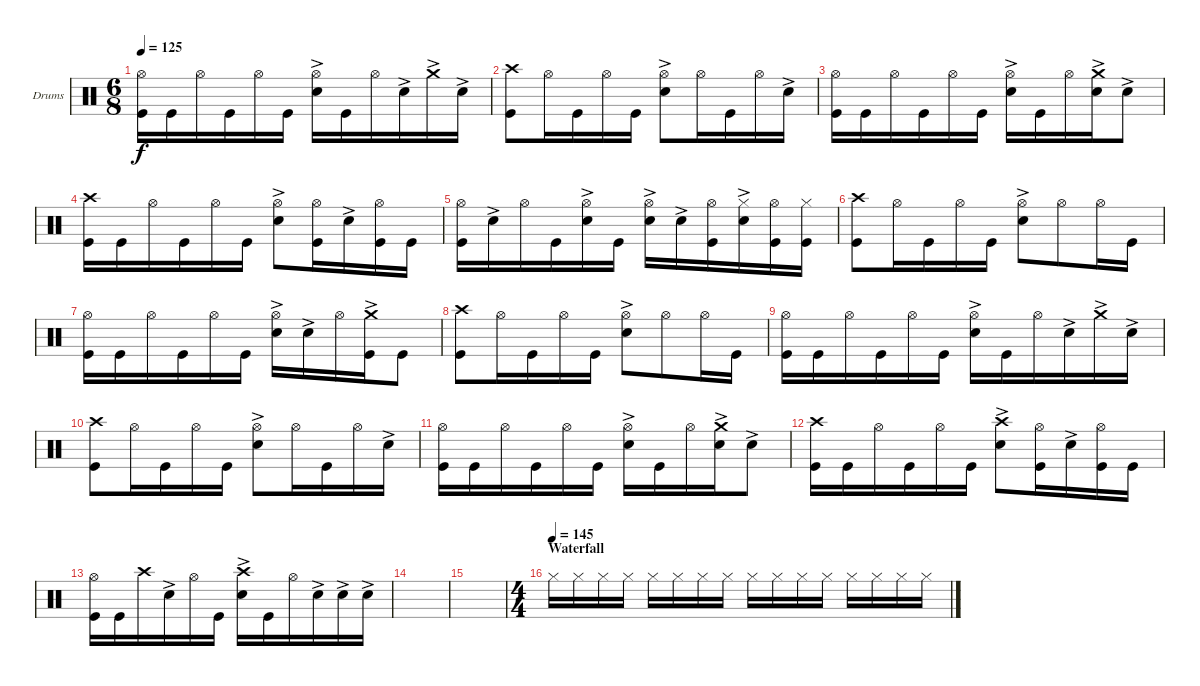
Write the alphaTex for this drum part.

\defaultSystemsLayout 4
\bracketExtendMode groupsimilarinstruments
\firstSystemTrackNameOrientation horizontal
\otherSystemsTrackNameOrientation horizontal
\track ("Drumkit" "Drums") {instrument percussion}
\staff {score}
\articulation defaults
\ts (6 8)
\tempo 125
\clef neutral
\ks c
("Kick (hit)" "Hi-Hat (open)").16{dy f} "Kick (hit)".16 "Hi-Hat (open)".16 "Kick (hit)".16 "Hi-Hat (open)".16 "Kick (hit)".16 ("Hi-Hat (open)" "Snare (hit) 2"{ac}).16 "Kick (hit)".16 "Hi-Hat (open)".16 "Snare (hit) 2"{ac}.16 "Crash medium (hit)"{ac}.16 "Snare (hit) 2"{ac}.16 |
("Crash high (hit)" "Kick (hit)").8 "Hi-Hat (open)".16 "Kick (hit)".16 "Hi-Hat (open)".16 "Kick (hit)".16 ("Hi-Hat (open)" "Snare (hit) 2"{ac}).8 "Hi-Hat (open)".16 "Kick (hit)".16 "Hi-Hat (open)".16 "Snare (hit) 2"{ac}.16 |
("Kick (hit)" "Hi-Hat (open)").16 "Kick (hit)".16 "Hi-Hat (open)".16 "Kick (hit)".16 "Hi-Hat (open)".16 "Kick (hit)".16 ("Hi-Hat (open)" "Snare (hit) 2"{ac}).16 "Kick (hit)".16 "Hi-Hat (open)".16 ("Snare (hit) 2" "Crash medium (hit)"{ac}).16 "Snare (hit) 2"{ac}.8 |
("Crash high (hit)" "Kick (hit)").16 "Kick (hit)".16 "Hi-Hat (open)".16 "Kick (hit)".16 "Hi-Hat (open)".16 "Kick (hit)".16 ("Hi-Hat (open)" "Snare (hit) 2"{ac}).8 ("Hi-Hat (open)" "Kick (hit)").16 "Snare (hit) 2"{ac}.16 ("Hi-Hat (open)" "Kick (hit)").16 "Kick (hit)".16 |
("Kick (hit)" "Hi-Hat (open)").16 "Snare (hit) 2"{ac}.16 "Hi-Hat (open)".16 "Kick (hit)".16 ("Hi-Hat (open)" "Snare (hit) 2"{ac}).16 "Kick (hit)".16 ("Hi-Hat (open)" "Snare (hit) 2"{ac}).16 "Snare (hit) 2"{ac}.16 ("Hi-Hat (open)" "Kick (hit)").16 ("Snare (hit) 2"{ac} "Hi-Hat (closed)").16 ("Hi-Hat (open)" "Kick (hit)").16 ("Hi-Hat (closed)" "Kick (hit)").16 |
("Crash high (hit)" "Kick (hit)").8 "Hi-Hat (open)".16 "Kick (hit)".16 "Hi-Hat (open)".16 "Kick (hit)".16 ("Hi-Hat (open)" "Snare (hit) 2"{ac}).8 "Hi-Hat (open)".8 "Hi-Hat (open)".16 "Kick (hit)".16 |
("Kick (hit)" "Hi-Hat (open)").16 "Kick (hit)".16 "Hi-Hat (open)".16 "Kick (hit)".16 "Hi-Hat (open)".16 "Kick (hit)".16 ("Hi-Hat (open)" "Snare (hit) 2"{ac}).16 "Snare (hit) 2"{ac}.16 "Hi-Hat (open)".16 ("Kick (hit)" "Crash medium (hit)"{ac}).16 "Kick (hit)".8 |
("Crash high (hit)" "Kick (hit)").8 "Hi-Hat (open)".16 "Kick (hit)".16 "Hi-Hat (open)".16 "Kick (hit)".16 ("Hi-Hat (open)" "Snare (hit) 2"{ac}).8 "Hi-Hat (open)".8 "Hi-Hat (open)".16 "Kick (hit)".16 |
("Kick (hit)" "Hi-Hat (open)").16 "Kick (hit)".16 "Hi-Hat (open)".16 "Kick (hit)".16 "Hi-Hat (open)".16 "Kick (hit)".16 ("Hi-Hat (open)" "Snare (hit) 2"{ac}).16 "Kick (hit)".16 "Hi-Hat (open)".16 "Snare (hit) 2"{ac}.16 "Crash medium (hit)"{ac}.16 "Snare (hit) 2"{ac}.16 |
("Crash high (hit)" "Kick (hit)").8 "Hi-Hat (open)".16 "Kick (hit)".16 "Hi-Hat (open)".16 "Kick (hit)".16 ("Hi-Hat (open)" "Snare (hit) 2"{ac}).8 "Hi-Hat (open)".16 "Kick (hit)".16 "Hi-Hat (open)".16 "Snare (hit) 2"{ac}.16 |
("Kick (hit)" "Hi-Hat (open)").16 "Kick (hit)".16 "Hi-Hat (open)".16 "Kick (hit)".16 "Hi-Hat (open)".16 "Kick (hit)".16 ("Hi-Hat (open)" "Snare (hit) 2"{ac}).16 "Kick (hit)".16 "Hi-Hat (open)".16 ("Snare (hit) 2" "Crash medium (hit)"{ac}).16 "Snare (hit) 2"{ac}.8 |
("Crash high (hit)" "Kick (hit)").16 "Kick (hit)".16 "Hi-Hat (open)".16 "Kick (hit)".16 "Hi-Hat (open)".16 "Kick (hit)".16 ("Snare (hit) 2"{ac} "Crash high (hit)").8 ("Hi-Hat (open)" "Kick (hit)").16 "Snare (hit) 2"{ac}.16 ("Hi-Hat (open)" "Kick (hit)").16 "Kick (hit)".16 |
("Kick (hit)" "Hi-Hat (open)").16 "Kick (hit)".16 "Crash high (hit)".16 "Snare (hit) 2"{ac}.16 "Hi-Hat (open)".16 "Kick (hit)".16 ("Snare (hit) 2"{ac} "Crash high (hit)").16 "Kick (hit)".16 "Hi-Hat (open)".16 "Snare (hit) 2"{ac}.16 "Snare (hit) 2"{ac}.16 "Snare (hit) 2"{ac}.16 |
|
|
\ts (4 4)
\section ("" "Waterfall")
\tempo (145)
"Hi-Hat (closed)".16 "Hi-Hat (closed)".16 "Hi-Hat (closed)".16 "Hi-Hat (closed)".16 "Hi-Hat (closed)".16 "Hi-Hat (closed)".16 "Hi-Hat (closed)".16 "Hi-Hat (closed)".16 "Hi-Hat (closed)".16 "Hi-Hat (closed)".16 "Hi-Hat (closed)".16 "Hi-Hat (closed)".16 "Hi-Hat (closed)".16 "Hi-Hat (closed)".16 "Hi-Hat (closed)".16 "Hi-Hat (closed)".16
